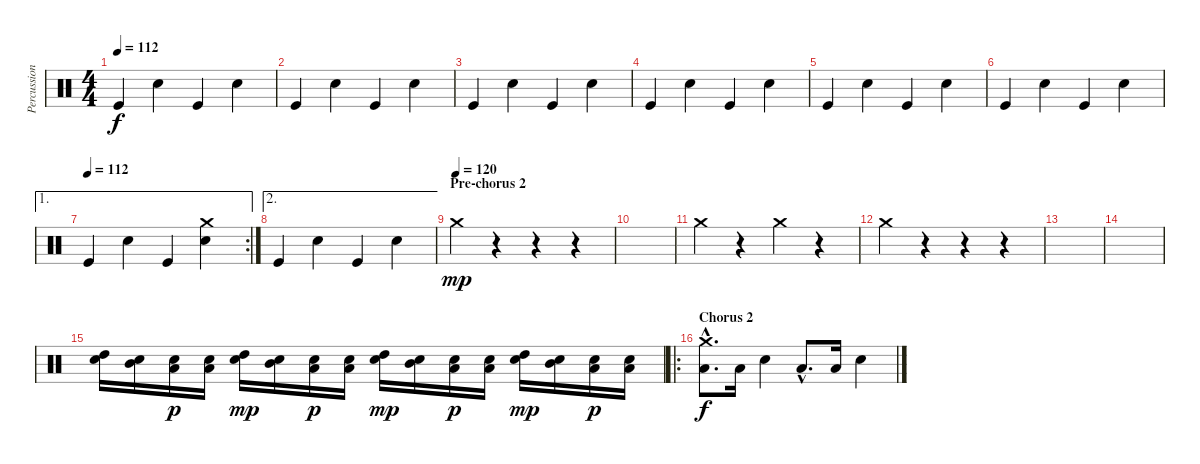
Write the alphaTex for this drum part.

\track ("Percussion 1" "Percussion") {instrument percussion}
\staff {score}
\articulation defaults
\ts (4 4)
\tempo 112
\clef neutral
\ks c "Kick (hit)".4{dy f} "Electric Snare (hit)".4 "Kick (hit)".4 "Electric Snare (hit)".4
|
"Kick (hit)".4 "Electric Snare (hit)".4 "Kick (hit)".4 "Electric Snare (hit)".4 |
"Kick (hit)".4 "Electric Snare (hit)".4 "Kick (hit)".4 "Electric Snare (hit)".4 |
"Kick (hit)".4 "Electric Snare (hit)".4 "Kick (hit)".4 "Electric Snare (hit)".4 |
"Kick (hit)".4 "Electric Snare (hit)".4 "Kick (hit)".4 "Electric Snare (hit)".4 |
"Kick (hit)".4 "Electric Snare (hit)".4 "Kick (hit)".4 "Electric Snare (hit)".4 |
\ae 1
\rc 2
\tempo (112)
"Kick (hit)".4 "Electric Snare (hit)".4 "Kick (hit)".4 ("Electric Snare (hit)" "Crash medium (hit)").4 |
\ae 2 "Kick (hit)".4 "Electric Snare (hit)".4 "Kick (hit)".4 "Electric Snare (hit)".4
|
\section ("" "Pre-chorus 2")
\tempo (120)
"Crash medium (hit)".4{dy mp} r.4 r.4 r.4 |
|
"Crash medium (hit)".4 r.4 "Crash medium (hit)".4 r.4 |
"Crash medium (hit)".4 r.4 r.4 r.4 |
|
|
("High Tom (hit)" "Electric Snare (hit)").16 ("Mid Tom (hit)" "Electric Snare (hit)").16 ("Low Tom (hit)" "Electric Snare (hit)").16{dy p} ("Low Tom (hit)" "Electric Snare (hit)").16 ("High Tom (hit)" "Electric Snare (hit)").16{dy mp} ("Mid Tom (hit)" "Electric Snare (hit)").16 ("Low Tom (hit)" "Electric Snare (hit)").16{dy p} ("Low Tom (hit)" "Electric Snare (hit)").16 ("High Tom (hit)" "Electric Snare (hit)").16{dy mp} ("Mid Tom (hit)" "Electric Snare (hit)").16 ("Low Tom (hit)" "Electric Snare (hit)").16{dy p} ("Low Tom (hit)" "Electric Snare (hit)").16 ("High Tom (hit)" "Electric Snare (hit)").16{dy mp} ("Mid Tom (hit)" "Electric Snare (hit)").16 ("Low Tom (hit)" "Electric Snare (hit)").16{dy p} ("Low Tom (hit)" "Electric Snare (hit)").16 |
\ro
\section ("" "Chorus 2")
("Crash medium (hit)"{hac} "Low Tom (hit)"{hac}).8{d dy f} "Low Tom (hit)".16 "Electric Snare (hit)".4 "Low Tom (hit)"{hac}.8{d} "Low Tom (hit)".16 "Electric Snare (hit)".4
